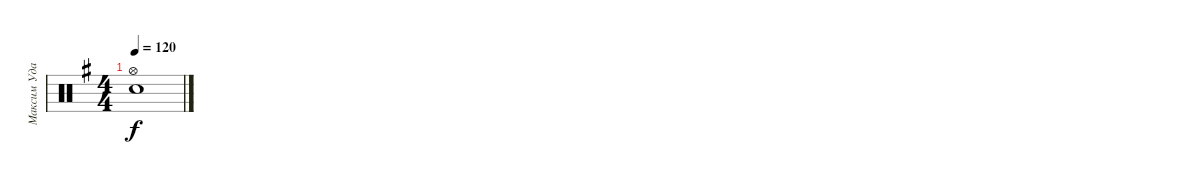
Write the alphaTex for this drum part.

\track ("Максим Удалов" "Максим Уда") {instrument percussion}
\staff {score}
\articulation defaults
\ts (4 4)
\tempo 120
\clef neutral
\ks g
("Snare (hit) 2"{t} "Hi-Hat (open)"{t}).1{dy f}
